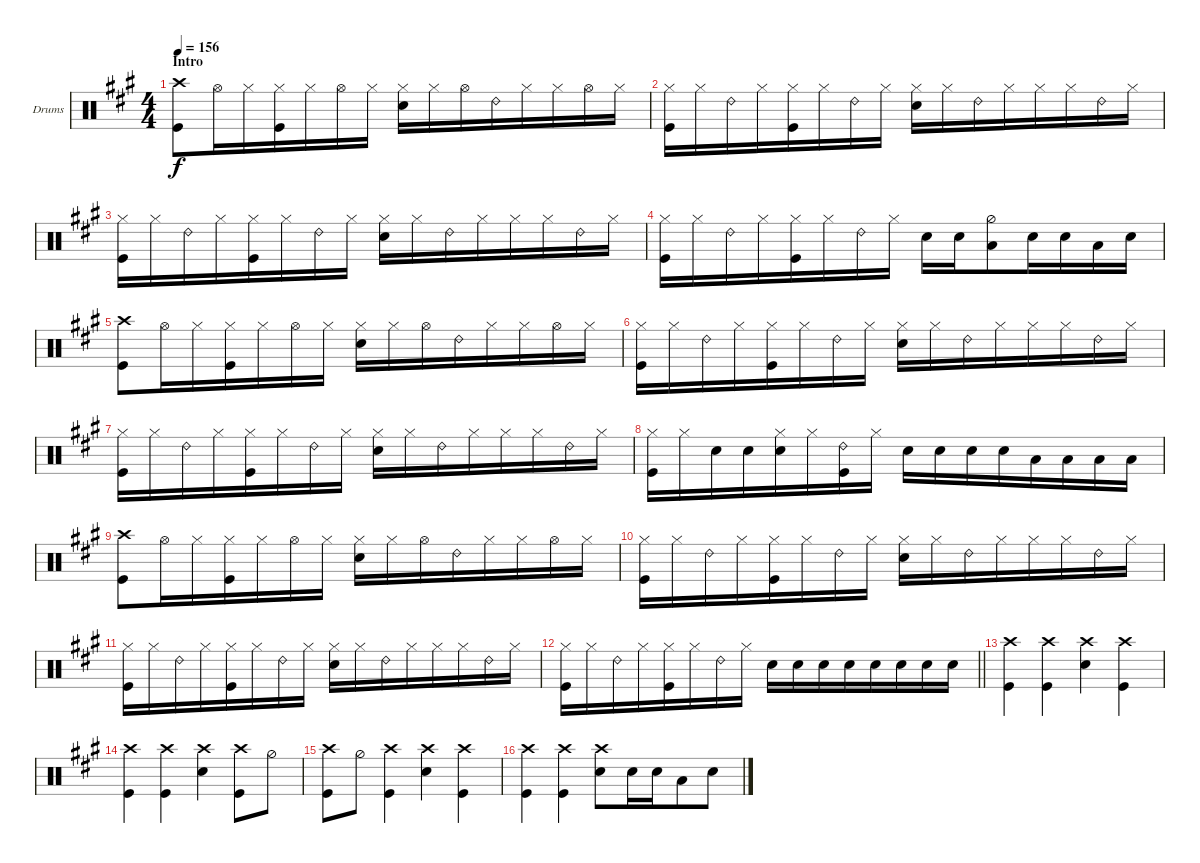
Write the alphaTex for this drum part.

\defaultSystemsLayout 4
\bracketExtendMode groupsimilarinstruments
\firstSystemTrackNameOrientation horizontal
\otherSystemsTrackNameOrientation horizontal
\track ("Drums" "Drums") {instrument percussion}
\staff {score}
\articulation defaults
\ts (4 4)
\beaming (8 4 4)
\section ("" "Intro")
\tempo 156
\clef neutral
\ks a
("Kick (hit)" "Crash high (hit)").8{dy f} "Hi-Hat (open)".16 "Hi-Hat (closed)".16 ("Hi-Hat (closed)" "Kick (hit)").16 "Hi-Hat (closed)".16 "Hi-Hat (open)".16 "Hi-Hat (closed)".16 ("Hi-Hat (closed)" "Snare (hit) 2").16 "Hi-Hat (closed)".16 "Hi-Hat (open)".16 "Ride (bell) 2".16 "Hi-Hat (closed)".16 "Hi-Hat (closed)".16 "Hi-Hat (open)".16 "Hi-Hat (closed)".16 |
("Kick (hit)" "Hi-Hat (closed)").16 "Hi-Hat (closed)".16 "Ride (bell) 2".16 "Hi-Hat (closed)".16 ("Hi-Hat (closed)" "Kick (hit)").16 "Hi-Hat (closed)".16 "Ride (bell) 2".16 "Hi-Hat (closed)".16 ("Hi-Hat (closed)" "Snare (hit) 2").16 "Hi-Hat (closed)".16 "Ride (bell) 2".16 "Hi-Hat (closed)".16 "Hi-Hat (closed)".16 "Hi-Hat (closed)".16 "Ride (bell) 2".16 "Hi-Hat (closed)".16 |
("Kick (hit)" "Hi-Hat (closed)").16 "Hi-Hat (closed)".16 "Ride (bell) 2".16 "Hi-Hat (closed)".16 ("Hi-Hat (closed)" "Kick (hit)").16 "Hi-Hat (closed)".16 "Ride (bell) 2".16 "Hi-Hat (closed)".16 ("Hi-Hat (closed)" "Snare (hit) 2").16 "Hi-Hat (closed)".16 "Ride (bell) 2".16 "Hi-Hat (closed)".16 "Hi-Hat (closed)".16 "Hi-Hat (closed)".16 "Ride (bell) 2".16 "Hi-Hat (closed)".16 |
("Kick (hit)" "Hi-Hat (closed)").16 "Hi-Hat (closed)".16 "Ride (bell) 2".16 "Hi-Hat (closed)".16 ("Hi-Hat (closed)" "Kick (hit)").16 "Hi-Hat (closed)".16 "Ride (bell) 2".16 "Hi-Hat (closed)".16 "Snare (hit) 2".16 "Snare (hit) 2".16 ("Low Tom (hit)" "Hi-Hat (half)").8 "Snare (hit) 2".16 "Snare (hit) 2".16 "Low Tom (hit)".16 "Snare (hit) 2".16 |
("Kick (hit)" "Crash high (hit)").8 "Hi-Hat (open)".16 "Hi-Hat (closed)".16 ("Hi-Hat (closed)" "Kick (hit)").16 "Hi-Hat (closed)".16 "Hi-Hat (open)".16 "Hi-Hat (closed)".16 ("Hi-Hat (closed)" "Snare (hit) 2").16 "Hi-Hat (closed)".16 "Hi-Hat (open)".16 "Ride (bell) 2".16 "Hi-Hat (closed)".16 "Hi-Hat (closed)".16 "Hi-Hat (open)".16 "Hi-Hat (closed)".16 |
("Kick (hit)" "Hi-Hat (closed)").16 "Hi-Hat (closed)".16 "Ride (bell) 2".16 "Hi-Hat (closed)".16 ("Hi-Hat (closed)" "Kick (hit)").16 "Hi-Hat (closed)".16 "Ride (bell) 2".16 "Hi-Hat (closed)".16 ("Hi-Hat (closed)" "Snare (hit) 2").16 "Hi-Hat (closed)".16 "Ride (bell) 2".16 "Hi-Hat (closed)".16 "Hi-Hat (closed)".16 "Hi-Hat (closed)".16 "Ride (bell) 2".16 "Hi-Hat (closed)".16 |
("Kick (hit)" "Hi-Hat (closed)").16 "Hi-Hat (closed)".16 "Ride (bell) 2".16 "Hi-Hat (closed)".16 ("Hi-Hat (closed)" "Kick (hit)").16 "Hi-Hat (closed)".16 "Ride (bell) 2".16 "Hi-Hat (closed)".16 ("Hi-Hat (closed)" "Snare (hit) 2").16 "Hi-Hat (closed)".16 "Ride (bell) 2".16 "Hi-Hat (closed)".16 "Hi-Hat (closed)".16 "Hi-Hat (closed)".16 "Ride (bell) 2".16 "Hi-Hat (closed)".16 |
("Kick (hit)" "Hi-Hat (closed)").16 "Hi-Hat (closed)".16 "Snare (hit) 2".16 "Snare (hit) 2".16 ("Snare (hit) 2" "Hi-Hat (closed)").16 "Hi-Hat (closed)".16 ("Ride (bell) 2" "Kick (hit)").16 "Hi-Hat (closed)".16 "Snare (hit) 2".16 "Snare (hit) 2".16 "Snare (hit) 2".16 "Snare (hit) 2".16 "Low Tom (hit)".16 "Low Tom (hit)".16 "Low Tom (hit)".16 "Low Tom (hit)".16 |
("Kick (hit)" "Crash high (hit)").8 "Hi-Hat (open)".16 "Hi-Hat (closed)".16 ("Hi-Hat (closed)" "Kick (hit)").16 "Hi-Hat (closed)".16 "Hi-Hat (open)".16 "Hi-Hat (closed)".16 ("Hi-Hat (closed)" "Snare (hit) 2").16 "Hi-Hat (closed)".16 "Hi-Hat (open)".16 "Ride (bell) 2".16 "Hi-Hat (closed)".16 "Hi-Hat (closed)".16 "Hi-Hat (open)".16 "Hi-Hat (closed)".16 |
("Kick (hit)" "Hi-Hat (closed)").16 "Hi-Hat (closed)".16 "Ride (bell) 2".16 "Hi-Hat (closed)".16 ("Hi-Hat (closed)" "Kick (hit)").16 "Hi-Hat (closed)".16 "Ride (bell) 2".16 "Hi-Hat (closed)".16 ("Hi-Hat (closed)" "Snare (hit) 2").16 "Hi-Hat (closed)".16 "Ride (bell) 2".16 "Hi-Hat (closed)".16 "Hi-Hat (closed)".16 "Hi-Hat (closed)".16 "Ride (bell) 2".16 "Hi-Hat (closed)".16 |
("Kick (hit)" "Hi-Hat (closed)").16 "Hi-Hat (closed)".16 "Ride (bell) 2".16 "Hi-Hat (closed)".16 ("Hi-Hat (closed)" "Kick (hit)").16 "Hi-Hat (closed)".16 "Ride (bell) 2".16 "Hi-Hat (closed)".16 ("Hi-Hat (closed)" "Snare (hit) 2").16 "Hi-Hat (closed)".16 "Ride (bell) 2".16 "Hi-Hat (closed)".16 "Hi-Hat (closed)".16 "Hi-Hat (closed)".16 "Ride (bell) 2".16 "Hi-Hat (closed)".16 |
\barLineRight lightlight
("Kick (hit)" "Hi-Hat (closed)").16 "Hi-Hat (closed)".16 "Ride (bell) 2".16 "Hi-Hat (closed)".16 ("Hi-Hat (closed)" "Kick (hit)").16 "Hi-Hat (closed)".16 "Ride (bell) 2".16 "Hi-Hat (closed)".16 "Snare (hit) 2".16 "Snare (hit) 2".16 "Snare (hit) 2".16 "Snare (hit) 2".16 "Snare (hit) 2".16 "Snare (hit) 2".16 "Snare (hit) 2".16 "Snare (hit) 2".16 |
("Kick (hit)" "Crash high (hit)").4 ("Kick (hit)" "Crash high (hit)").4 ("Crash high (hit)" "Snare (hit) 2").4 ("Kick (hit)" "Crash high (hit)").4 |
("Kick (hit)" "Crash high (hit)").4 ("Kick (hit)" "Crash high (hit)").4 ("Crash high (hit)" "Snare (hit) 2").4 ("Kick (hit)" "Crash high (hit)").8 "Hi-Hat (half)".8 |
("Kick (hit)" "Crash high (hit)").8 "Hi-Hat (half)".8 ("Kick (hit)" "Crash high (hit)").4 ("Crash high (hit)" "Snare (hit) 2").4 ("Kick (hit)" "Crash high (hit)").4 |
("Kick (hit)" "Crash high (hit)").4 ("Kick (hit)" "Crash high (hit)").4 ("Snare (hit) 2" "Crash high (hit)").8 "Snare (hit) 2".16 "Snare (hit) 2".16 "Low Tom (hit)".8 "Snare (hit) 2".8
